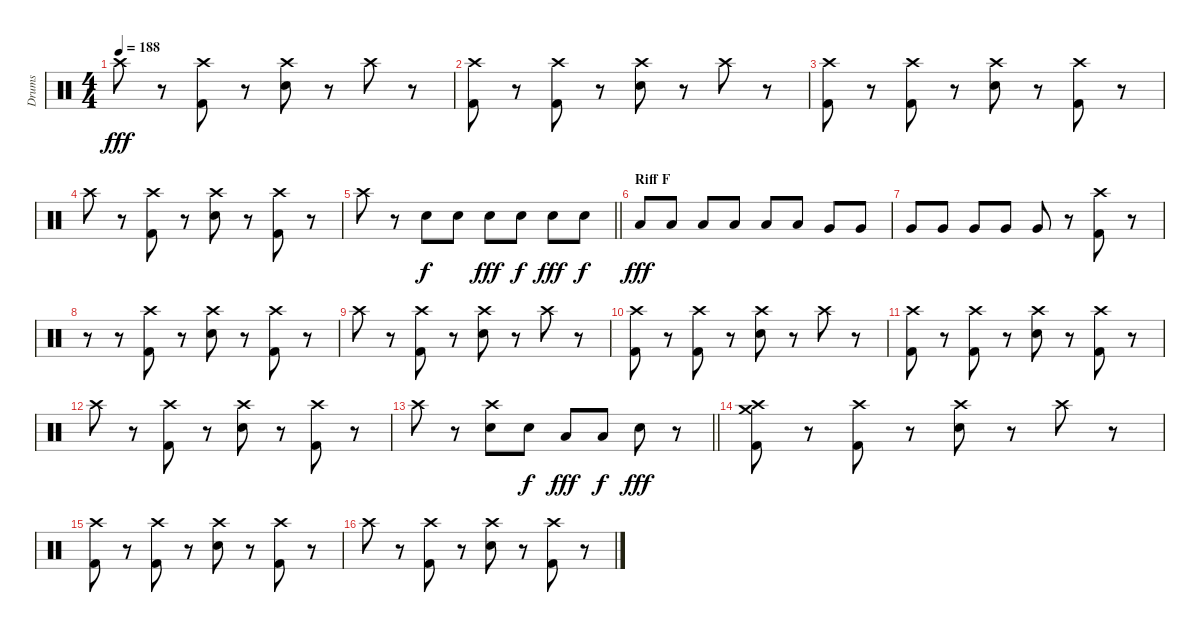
\track ("Drums" "Drums") {instrument percussion}
\staff {score}
\articulation defaults
\ts (4 4)
\tempo 188
\clef neutral
\ks c "Crash high (hit)".8{dy fff}
r.8 ("Crash high (hit)" "Kick (hit) 2").8 r.8 ("Crash high (hit)" "Electric Snare (hit)").8 r.8 "Crash high (hit)".8 r.8 |
("Crash high (hit)" "Kick (hit) 2").8 r.8 ("Crash high (hit)" "Kick (hit) 2").8 r.8 ("Crash high (hit)" "Electric Snare (hit)").8 r.8 "Crash high (hit)".8 r.8 |
("Crash high (hit)" "Kick (hit) 2").8 r.8 ("Crash high (hit)" "Kick (hit) 2").8 r.8 ("Crash high (hit)" "Electric Snare (hit)").8 r.8 ("Crash high (hit)" "Kick (hit) 2").8 r.8 |
"Crash high (hit)".8 r.8 ("Crash high (hit)" "Kick (hit) 2").8 r.8 ("Crash high (hit)" "Electric Snare (hit)").8 r.8 ("Crash high (hit)" "Kick (hit) 2").8 r.8 |
\barLineRight lightlight "Crash high (hit)".8
r.8 "Electric Snare (hit)".8{dy f} "Electric Snare (hit)".8 "Electric Snare (hit)".8{dy fff} "Electric Snare (hit)".8{dy f} "Electric Snare (hit)".8{dy fff} "Electric Snare (hit)".8{dy f} |
\section ("" "Riff F")
"Low Tom (hit)".8{dy fff} "Low Tom (hit)".8 "Low Tom (hit)".8 "Low Tom (hit)".8 "Low Tom (hit)".8 "Low Tom (hit)".8 "Very Low Tom (hit)".8 "Very Low Tom (hit)".8 |
"Very Low Tom (hit)".8 "Very Low Tom (hit)".8 "Very Low Tom (hit)".8 "Very Low Tom (hit)".8 "Very Low Tom (hit)".8 r.8 ("Crash high (hit)" "Kick (hit) 2").8 r.8 |
r.8 r.8 ("Crash high (hit)" "Kick (hit) 2").8 r.8 ("Crash high (hit)" "Electric Snare (hit)").8 r.8 ("Crash high (hit)" "Kick (hit) 2").8 r.8 |
"Crash high (hit)".8 r.8 ("Crash high (hit)" "Kick (hit) 2").8 r.8 ("Crash high (hit)" "Electric Snare (hit)").8 r.8 "Crash high (hit)".8 r.8 |
("Crash high (hit)" "Kick (hit) 2").8 r.8 ("Crash high (hit)" "Kick (hit) 2").8 r.8 ("Crash high (hit)" "Electric Snare (hit)").8 r.8 "Crash high (hit)".8 r.8 |
("Crash high (hit)" "Kick (hit) 2").8 r.8 ("Crash high (hit)" "Kick (hit) 2").8 r.8 ("Crash high (hit)" "Electric Snare (hit)").8 r.8 ("Crash high (hit)" "Kick (hit) 2").8 r.8 |
"Crash high (hit)".8 r.8 ("Crash high (hit)" "Kick (hit) 2").8 r.8 ("Crash high (hit)" "Electric Snare (hit)").8 r.8 ("Crash high (hit)" "Kick (hit) 2").8 r.8 |
\barLineRight lightlight "Crash high (hit)".8
r.8 ("Crash high (hit)" "Electric Snare (hit)").8 "Electric Snare (hit)".8{dy f} "Low Tom (hit)".8{dy fff} "Low Tom (hit)".8{dy f} "Electric Snare (hit)".8{dy fff} r.8 |
("Crash medium (hit)" "Crash high (hit)" "Kick (hit) 2").8 r.8 ("Crash high (hit)" "Kick (hit) 2").8 r.8 ("Crash high (hit)" "Electric Snare (hit)").8 r.8 "Crash high (hit)".8 r.8 |
("Crash high (hit)" "Kick (hit) 2").8 r.8 ("Crash high (hit)" "Kick (hit) 2").8 r.8 ("Crash high (hit)" "Electric Snare (hit)").8 r.8 ("Crash high (hit)" "Kick (hit) 2").8 r.8 |
"Crash high (hit)".8 r.8 ("Crash high (hit)" "Kick (hit) 2").8 r.8 ("Crash high (hit)" "Electric Snare (hit)").8 r.8 ("Crash high (hit)" "Kick (hit) 2").8 r.8
